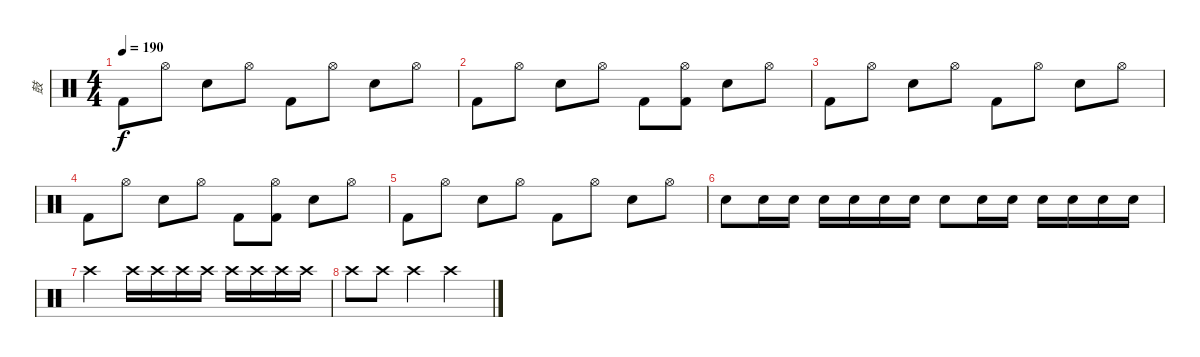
\track ("鼓" "鼓") {instrument percussion}
\staff {score}
\articulation defaults
\ts (4 4)
\tempo 190
\clef neutral
\ks c "Kick (hit) 2".8{dy f} "Hi-Hat (open)".8 "Snare (hit) 2".8 "Hi-Hat (open)".8 "Kick (hit) 2".8 "Hi-Hat (open)".8 "Snare (hit) 2".8 "Hi-Hat (open)".8
|
"Kick (hit) 2".8 "Hi-Hat (open)".8 "Snare (hit) 2".8 "Hi-Hat (open)".8 "Kick (hit) 2".8 ("Hi-Hat (open)" "Kick (hit) 2").8 "Snare (hit) 2".8 "Hi-Hat (open)".8 |
"Kick (hit) 2".8 "Hi-Hat (open)".8 "Snare (hit) 2".8 "Hi-Hat (open)".8 "Kick (hit) 2".8 "Hi-Hat (open)".8 "Snare (hit) 2".8 "Hi-Hat (open)".8 |
"Kick (hit) 2".8 "Hi-Hat (open)".8 "Snare (hit) 2".8 "Hi-Hat (open)".8 "Kick (hit) 2".8 ("Hi-Hat (open)" "Kick (hit) 2").8 "Snare (hit) 2".8 "Hi-Hat (open)".8 |
"Kick (hit) 2".8 "Hi-Hat (open)".8 "Snare (hit) 2".8 "Hi-Hat (open)".8 "Kick (hit) 2".8 "Hi-Hat (open)".8 "Snare (hit) 2".8 "Hi-Hat (open)".8 |
"Snare (hit) 2".8 "Snare (hit) 2".16 "Snare (hit) 2".16 "Snare (hit) 2".16 "Snare (hit) 2".16 "Snare (hit) 2".16 "Snare (hit) 2".16 "Snare (hit) 2".8 "Snare (hit) 2".16 "Snare (hit) 2".16 "Snare (hit) 2".16 "Snare (hit) 2".16 "Snare (hit) 2".16 "Snare (hit) 2".16 |
"Crash high (hit)".2{volume 6} "Crash high (hit)".16 "Crash high (hit)".16 "Crash high (hit)".16 "Crash high (hit)".16 "Crash high (hit)".16{volume 13} "Crash high (hit)".16 "Crash high (hit)".16 "Crash high (hit)".16 |
"Crash high (hit)".8 "Crash high (hit)".8 "Crash high (hit)".4 "Crash high (hit)".2
